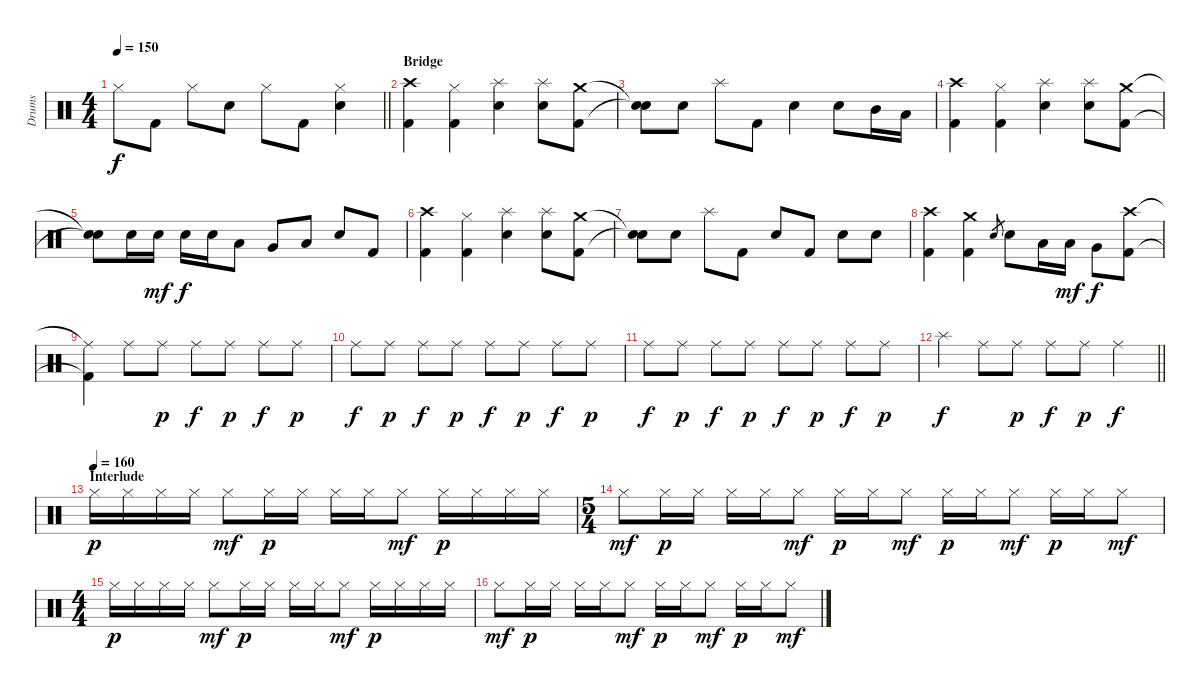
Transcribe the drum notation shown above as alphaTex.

\track ("Drums" "Drums") {instrument percussion}
\staff {score}
\articulation defaults
\ts (4 4)
\tempo 150
\clef neutral
\barLineRight lightlight
\ks c "Hi-Hat (closed)".8{dy f} "Kick (hit) 2".8 "Hi-Hat (closed)".8 "Electric Snare (hit)".8 "Hi-Hat (closed)".8 "Kick (hit) 2".8
("Hi-Hat (closed)" "Electric Snare (hit)").4 |
\section ("" "Bridge")
("Kick (hit) 2" "Crash high (hit)").4 ("Kick (hit) 2" "Hi-Hat (closed)").4 ("Splash (hit)" "Electric Snare (hit)").4 ("Splash (hit)" "Electric Snare (hit)").8 ("Kick (hit) 2" "Crash medium (hit)").8 |
("Snare (hit)"{t} "Snare (hit)"{t}).8 "Electric Snare (hit)".8 "Splash (hit)".8 "Kick (hit) 2".8 "Electric Snare (hit)".4 "Electric Snare (hit)".8 "Mid Tom (hit)".16 "Low Tom (hit)".16 |
("Kick (hit) 2" "Crash high (hit)").4 ("Kick (hit) 2" "Hi-Hat (closed)").4 ("Splash (hit)" "Electric Snare (hit)").4 ("Splash (hit)" "Electric Snare (hit)").8 ("Kick (hit) 2" "Crash medium (hit)").8 |
("Snare (hit)"{t} "Snare (hit)"{t}).8 "Electric Snare (hit)".16 "Electric Snare (hit)".16{dy mf} "Electric Snare (hit)".16{dy f} "Electric Snare (hit)".16 "Low Tom (hit)".8 "Very Low Tom (hit)".8 "Low Floor Tom (hit)".8 "Electric Snare (hit)".8 "Kick (hit) 2".8 |
("Kick (hit) 2" "Crash high (hit)").4 ("Kick (hit) 2" "Hi-Hat (closed)").4 ("Splash (hit)" "Electric Snare (hit)").4 ("Splash (hit)" "Electric Snare (hit)").8 ("Kick (hit) 2" "Crash medium (hit)").8 |
("Snare (hit)"{t} "Snare (hit)"{t}).8 "Electric Snare (hit)".8 "Splash (hit)".8 "Kick (hit) 2".8 "Electric Snare (hit)".8 "Kick (hit) 2".8 "Electric Snare (hit)".8 "Electric Snare (hit)".8 |
("Kick (hit) 2" "Crash high (hit)").4 ("Kick (hit) 2" "Crash medium (hit)").4 "Electric Snare (hit)".8{gr} "Electric Snare (hit)".8 "Low Tom (hit)".16 "Low Tom (hit)".16{dy mf} "Very Low Tom (hit)".8{dy f} ("Kick (hit) 2" "Crash high (hit)").8 |
("Kick (hit) 2"{t} "Ride (middle)"{t}).4 "Ride (middle)".8 "Ride (middle)".8{dy p} "Ride (middle)".8{dy f} "Ride (middle)".8{dy p} "Ride (middle)".8{dy f} "Ride (middle)".8{dy p} |
"Ride (middle)".8{dy f} "Ride (middle)".8{dy p} "Ride (middle)".8{dy f} "Ride (middle)".8{dy p} "Ride (middle)".8{dy f} "Ride (middle)".8{dy p} "Ride (middle)".8{dy f} "Ride (middle)".8{dy p} |
"Ride (middle)".8{dy f} "Ride (middle)".8{dy p} "Ride (middle)".8{dy f} "Ride (middle)".8{dy p} "Ride (middle)".8{dy f} "Ride (middle)".8{dy p} "Ride (middle)".8{dy f} "Ride (middle)".8{dy p} |
\barLineRight lightlight "Splash (hit)".4{dy f} "Ride (middle)".8 "Ride (middle)".8{dy p} "Ride (middle)".8{dy f} "Ride (middle)".8{dy p} "Ride (middle)".4{dy f}
|
\section ("" "Interlude")
\tempo (160)
"Hi-Hat (closed)".16{dy p} "Hi-Hat (closed)".16 "Hi-Hat (closed)".16 "Hi-Hat (closed)".16 "Hi-Hat (closed)".8{dy mf} "Hi-Hat (closed)".16{dy p} "Hi-Hat (closed)".16 "Hi-Hat (closed)".16 "Hi-Hat (closed)".16 "Hi-Hat (closed)".8{dy mf} "Hi-Hat (closed)".16{dy p} "Hi-Hat (closed)".16 "Hi-Hat (closed)".16 "Hi-Hat (closed)".16 |
\ts (5 4)
"Hi-Hat (closed)".8{dy mf} "Hi-Hat (closed)".16{dy p} "Hi-Hat (closed)".16 "Hi-Hat (closed)".16 "Hi-Hat (closed)".16 "Hi-Hat (closed)".8{dy mf} "Hi-Hat (closed)".16{dy p} "Hi-Hat (closed)".16 "Hi-Hat (closed)".8{dy mf} "Hi-Hat (closed)".16{dy p} "Hi-Hat (closed)".16 "Hi-Hat (closed)".8{dy mf} "Hi-Hat (closed)".16{dy p} "Hi-Hat (closed)".16 "Hi-Hat (closed)".8{dy mf} |
\ts (4 4)
"Hi-Hat (closed)".16{dy p} "Hi-Hat (closed)".16 "Hi-Hat (closed)".16 "Hi-Hat (closed)".16 "Hi-Hat (closed)".8{dy mf} "Hi-Hat (closed)".16{dy p} "Hi-Hat (closed)".16 "Hi-Hat (closed)".16 "Hi-Hat (closed)".16 "Hi-Hat (closed)".8{dy mf} "Hi-Hat (closed)".16{dy p} "Hi-Hat (closed)".16 "Hi-Hat (closed)".16 "Hi-Hat (closed)".16 |
"Hi-Hat (closed)".8{dy mf} "Hi-Hat (closed)".16{dy p} "Hi-Hat (closed)".16 "Hi-Hat (closed)".16 "Hi-Hat (closed)".16 "Hi-Hat (closed)".8{dy mf} "Hi-Hat (closed)".16{dy p} "Hi-Hat (closed)".16 "Hi-Hat (closed)".8{dy mf} "Hi-Hat (closed)".16{dy p} "Hi-Hat (closed)".16 "Hi-Hat (closed)".8{dy mf}
